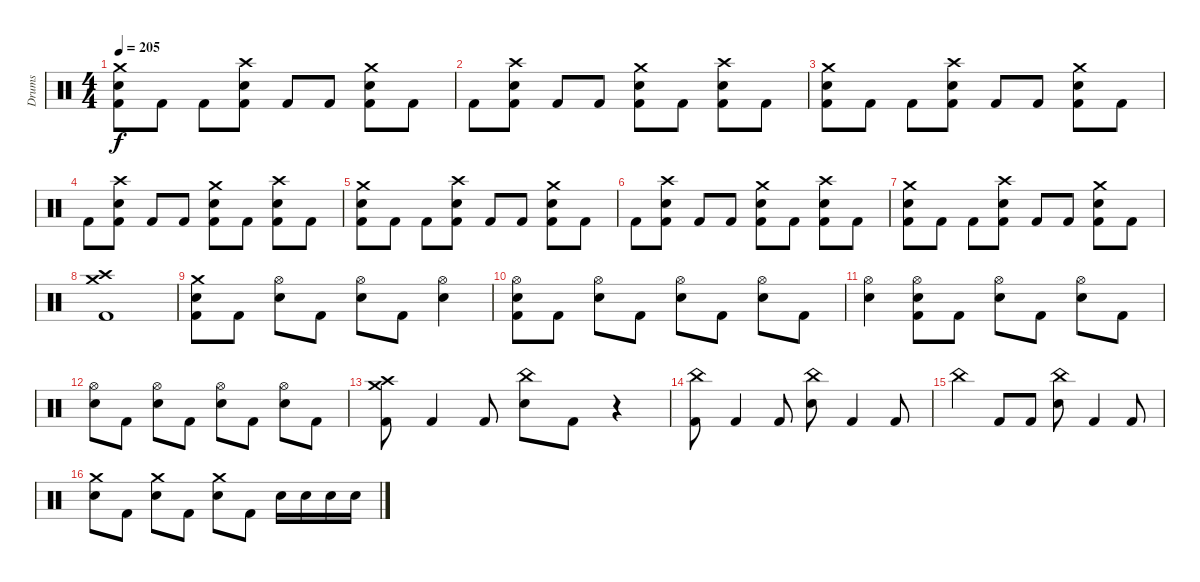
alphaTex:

\track ("Drums" "Drums") {instrument percussion}
\staff {score}
\articulation defaults
\ts (4 4)
\tempo 205
\clef neutral
\ks c
("Crash medium (hit)" "Electric Snare (hit)" "Kick (hit) 2").8{dy f} "Kick (hit) 2".8 "Kick (hit) 2".8 ("Crash high (hit)" "Electric Snare (hit)" "Kick (hit) 2").8 "Kick (hit) 2".8 "Kick (hit) 2".8 ("Crash medium (hit)" "Electric Snare (hit)" "Kick (hit) 2").8 "Kick (hit) 2".8 |
"Kick (hit) 2".8 ("Crash high (hit)" "Electric Snare (hit)" "Kick (hit) 2").8 "Kick (hit) 2".8 "Kick (hit) 2".8 ("Crash medium (hit)" "Electric Snare (hit)" "Kick (hit) 2").8 "Kick (hit) 2".8 ("Crash high (hit)" "Electric Snare (hit)" "Kick (hit) 2").8 "Kick (hit) 2".8 |
("Crash medium (hit)" "Electric Snare (hit)" "Kick (hit) 2").8 "Kick (hit) 2".8 "Kick (hit) 2".8 ("Crash high (hit)" "Electric Snare (hit)" "Kick (hit) 2").8 "Kick (hit) 2".8 "Kick (hit) 2".8 ("Crash medium (hit)" "Electric Snare (hit)" "Kick (hit) 2").8 "Kick (hit) 2".8 |
"Kick (hit) 2".8 ("Crash high (hit)" "Electric Snare (hit)" "Kick (hit) 2").8 "Kick (hit) 2".8 "Kick (hit) 2".8 ("Crash medium (hit)" "Electric Snare (hit)" "Kick (hit) 2").8 "Kick (hit) 2".8 ("Crash high (hit)" "Electric Snare (hit)" "Kick (hit) 2").8 "Kick (hit) 2".8 |
("Crash medium (hit)" "Electric Snare (hit)" "Kick (hit) 2").8 "Kick (hit) 2".8 "Kick (hit) 2".8 ("Crash high (hit)" "Electric Snare (hit)" "Kick (hit) 2").8 "Kick (hit) 2".8 "Kick (hit) 2".8 ("Crash medium (hit)" "Electric Snare (hit)" "Kick (hit) 2").8 "Kick (hit) 2".8 |
"Kick (hit) 2".8 ("Crash high (hit)" "Electric Snare (hit)" "Kick (hit) 2").8 "Kick (hit) 2".8 "Kick (hit) 2".8 ("Crash medium (hit)" "Electric Snare (hit)" "Kick (hit) 2").8 "Kick (hit) 2".8 ("Crash high (hit)" "Electric Snare (hit)" "Kick (hit) 2").8 "Kick (hit) 2".8 |
("Crash medium (hit)" "Electric Snare (hit)" "Kick (hit) 2").8 "Kick (hit) 2".8 "Kick (hit) 2".8 ("Crash high (hit)" "Electric Snare (hit)" "Kick (hit) 2").8 "Kick (hit) 2".8 "Kick (hit) 2".8 ("Crash medium (hit)" "Electric Snare (hit)" "Kick (hit) 2").8 "Kick (hit) 2".8 |
("Crash medium (hit)" "Crash high (hit)" "Kick (hit) 2").1 |
("Crash medium (hit)" "Electric Snare (hit)" "Kick (hit) 2").8 "Kick (hit) 2".8 ("Hi-Hat (open)" "Electric Snare (hit)").8 "Kick (hit) 2".8 ("Hi-Hat (open)" "Electric Snare (hit)").8 "Kick (hit) 2".8 ("Hi-Hat (open)" "Electric Snare (hit)").4 |
("Hi-Hat (open)" "Electric Snare (hit)" "Kick (hit) 2").8 "Kick (hit) 2".8 ("Hi-Hat (open)" "Electric Snare (hit)").8 "Kick (hit) 2".8 ("Hi-Hat (open)" "Electric Snare (hit)").8 "Kick (hit) 2".8 ("Hi-Hat (open)" "Electric Snare (hit)").8 "Kick (hit) 2".8 |
("Hi-Hat (open)" "Electric Snare (hit)").4 ("Hi-Hat (open)" "Electric Snare (hit)" "Kick (hit) 2").8 "Kick (hit) 2".8 ("Hi-Hat (open)" "Electric Snare (hit)").8 "Kick (hit) 2".8 ("Hi-Hat (open)" "Electric Snare (hit)").8 "Kick (hit) 2".8 |
("Hi-Hat (open)" "Electric Snare (hit)").8 "Kick (hit) 2".8 ("Hi-Hat (open)" "Electric Snare (hit)").8 "Kick (hit) 2".8 ("Hi-Hat (open)" "Electric Snare (hit)").8 "Kick (hit) 2".8 ("Hi-Hat (open)" "Electric Snare (hit)").8 "Kick (hit) 2".8 |
("Crash medium (hit)" "Crash high (hit)" "Kick (hit) 2").8 "Kick (hit) 2".4 "Kick (hit) 2".8 ("China (hit)" "Electric Snare (hit)").8 "Kick (hit) 2".8 r.4 |
("China (hit)" "Kick (hit) 2").8 "Kick (hit) 2".4 "Kick (hit) 2".8 ("China (hit)" "Electric Snare (hit)").8 "Kick (hit) 2".4 "Kick (hit) 2".8 |
"China (hit)".4 "Kick (hit) 2".8 "Kick (hit) 2".8 ("China (hit)" "Electric Snare (hit)").8 "Kick (hit) 2".4 "Kick (hit) 2".8 |
("Crash medium (hit)" "Electric Snare (hit)").8 "Kick (hit) 2".8 ("Crash medium (hit)" "Electric Snare (hit)").8 "Kick (hit) 2".8 ("Crash medium (hit)" "Electric Snare (hit)").8 "Kick (hit) 2".8 "Electric Snare (hit)".16 "Electric Snare (hit)".16 "Electric Snare (hit)".16 "Electric Snare (hit)".16
